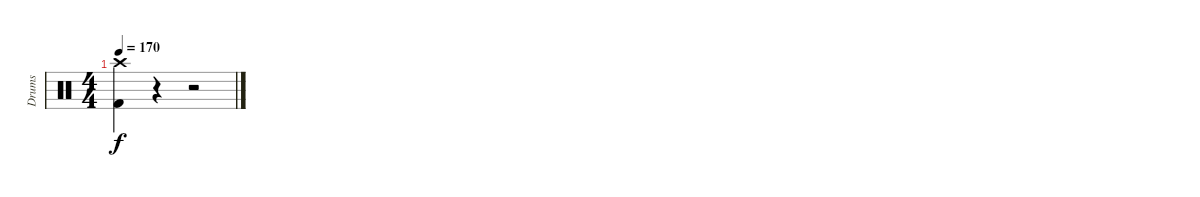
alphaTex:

\track ("Drums" "Drums") {instrument percussion}
\staff {score}
\articulation defaults
\ts (4 4)
\tempo 170
\clef neutral
\ks c
("Crash high (hit)" "Kick (hit) 2").4{dy f} r.4 r.2
